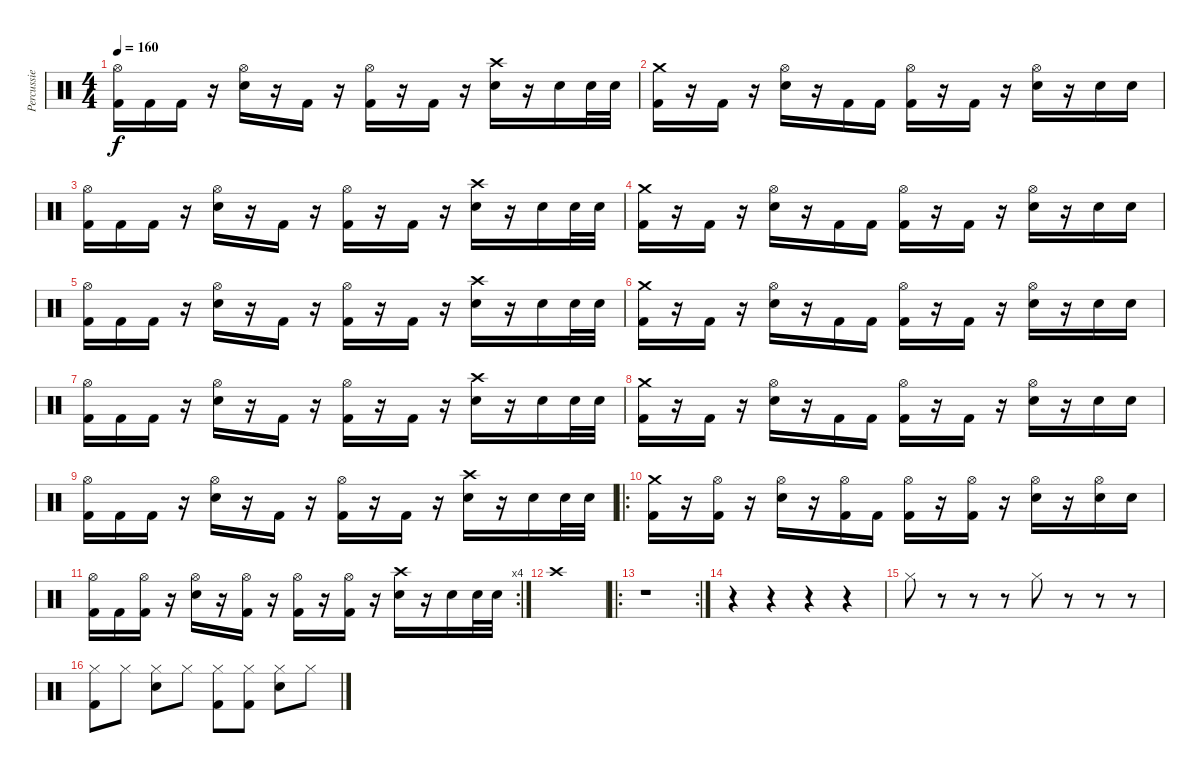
\track ("Percussie" "Percussie") {instrument percussion}
\staff {score}
\articulation defaults
\ts (4 4)
\tempo 160
\clef neutral
\ks c
("Hi-Hat (open)" "Kick (hit) 2").16{dy f} "Kick (hit) 2".16 "Kick (hit) 2".16 r.16 ("Hi-Hat (open)" "Electric Snare (hit)").16 r.16 "Kick (hit) 2".16 r.16 ("Hi-Hat (open)" "Kick (hit) 2").16 r.16 "Kick (hit) 2".16 r.16 ("Crash high (hit)" "Electric Snare (hit)").16 r.16 "Electric Snare (hit)".16 "Electric Snare (hit)".32 "Electric Snare (hit)".32 |
("Crash medium (hit)" "Kick (hit) 2").16 r.16 "Kick (hit) 2".16 r.16 ("Hi-Hat (open)" "Electric Snare (hit)").16 r.16 "Kick (hit) 2".16 "Kick (hit) 2".16 ("Hi-Hat (open)" "Kick (hit) 2").16 r.16 "Kick (hit) 2".16 r.16 ("Hi-Hat (open)" "Electric Snare (hit)").16 r.16 "Electric Snare (hit)".16 "Electric Snare (hit)".16 |
("Hi-Hat (open)" "Kick (hit) 2").16 "Kick (hit) 2".16 "Kick (hit) 2".16 r.16 ("Hi-Hat (open)" "Electric Snare (hit)").16 r.16 "Kick (hit) 2".16 r.16 ("Hi-Hat (open)" "Kick (hit) 2").16 r.16 "Kick (hit) 2".16 r.16 ("Crash high (hit)" "Electric Snare (hit)").16 r.16 "Electric Snare (hit)".16 "Electric Snare (hit)".32 "Electric Snare (hit)".32 |
("Crash medium (hit)" "Kick (hit) 2").16 r.16 "Kick (hit) 2".16 r.16 ("Hi-Hat (open)" "Electric Snare (hit)").16 r.16 "Kick (hit) 2".16 "Kick (hit) 2".16 ("Hi-Hat (open)" "Kick (hit) 2").16 r.16 "Kick (hit) 2".16 r.16 ("Hi-Hat (open)" "Electric Snare (hit)").16 r.16 "Electric Snare (hit)".16 "Electric Snare (hit)".16 |
("Hi-Hat (open)" "Kick (hit) 2").16 "Kick (hit) 2".16 "Kick (hit) 2".16 r.16 ("Hi-Hat (open)" "Electric Snare (hit)").16 r.16 "Kick (hit) 2".16 r.16 ("Hi-Hat (open)" "Kick (hit) 2").16 r.16 "Kick (hit) 2".16 r.16 ("Crash high (hit)" "Electric Snare (hit)").16 r.16 "Electric Snare (hit)".16 "Electric Snare (hit)".32 "Electric Snare (hit)".32 |
("Crash medium (hit)" "Kick (hit) 2").16 r.16 "Kick (hit) 2".16 r.16 ("Hi-Hat (open)" "Electric Snare (hit)").16 r.16 "Kick (hit) 2".16 "Kick (hit) 2".16 ("Hi-Hat (open)" "Kick (hit) 2").16 r.16 "Kick (hit) 2".16 r.16 ("Hi-Hat (open)" "Electric Snare (hit)").16 r.16 "Electric Snare (hit)".16 "Electric Snare (hit)".16 |
("Hi-Hat (open)" "Kick (hit) 2").16 "Kick (hit) 2".16 "Kick (hit) 2".16 r.16 ("Hi-Hat (open)" "Electric Snare (hit)").16 r.16 "Kick (hit) 2".16 r.16 ("Hi-Hat (open)" "Kick (hit) 2").16 r.16 "Kick (hit) 2".16 r.16 ("Crash high (hit)" "Electric Snare (hit)").16 r.16 "Electric Snare (hit)".16 "Electric Snare (hit)".32 "Electric Snare (hit)".32 |
("Crash medium (hit)" "Kick (hit) 2").16 r.16 "Kick (hit) 2".16 r.16 ("Hi-Hat (open)" "Electric Snare (hit)").16 r.16 "Kick (hit) 2".16 "Kick (hit) 2".16 ("Hi-Hat (open)" "Kick (hit) 2").16 r.16 "Kick (hit) 2".16 r.16 ("Hi-Hat (open)" "Electric Snare (hit)").16 r.16 "Electric Snare (hit)".16 "Electric Snare (hit)".16 |
("Hi-Hat (open)" "Kick (hit) 2").16 "Kick (hit) 2".16 "Kick (hit) 2".16 r.16 ("Hi-Hat (open)" "Electric Snare (hit)").16 r.16 "Kick (hit) 2".16 r.16 ("Hi-Hat (open)" "Kick (hit) 2").16 r.16 "Kick (hit) 2".16 r.16 ("Crash high (hit)" "Electric Snare (hit)").16 r.16 "Electric Snare (hit)".16 "Electric Snare (hit)".32 "Electric Snare (hit)".32 |
\ro
("Crash medium (hit)" "Kick (hit) 2").16 r.16 ("Hi-Hat (open)" "Kick (hit) 2").16 r.16 ("Hi-Hat (open)" "Electric Snare (hit)").16 r.16 ("Hi-Hat (open)" "Kick (hit) 2").16 "Kick (hit) 2".16 ("Hi-Hat (open)" "Kick (hit) 2").16 r.16 ("Hi-Hat (open)" "Kick (hit) 2").16 r.16 ("Hi-Hat (open)" "Electric Snare (hit)").16 r.16 ("Hi-Hat (open)" "Electric Snare (hit)").16 "Electric Snare (hit)".16 |
\rc 4
("Hi-Hat (open)" "Kick (hit) 2").16 "Kick (hit) 2".16 ("Hi-Hat (open)" "Kick (hit) 2").16 r.16 ("Hi-Hat (open)" "Electric Snare (hit)").16 r.16 ("Hi-Hat (open)" "Kick (hit) 2").16 r.16 ("Hi-Hat (open)" "Kick (hit) 2").16 r.16 ("Hi-Hat (open)" "Kick (hit) 2").16 r.16 ("Crash high (hit)" "Electric Snare (hit)").16 r.16 "Electric Snare (hit)".16 "Electric Snare (hit)".32 "Electric Snare (hit)".32 |
"Crash high (hit)".1 |
\ro
\rc 2
r.1 |
r.4 r.4 r.4 r.4 |
"Hi-Hat (closed)".8 r.8 r.8 r.8 "Hi-Hat (closed)".8 r.8 r.8 r.8 |
("Hi-Hat (closed)" "Kick (hit) 2").8 "Hi-Hat (closed)".8 ("Hi-Hat (closed)" "Electric Snare (hit)").8 "Hi-Hat (closed)".8 ("Hi-Hat (closed)" "Kick (hit) 2").8 ("Hi-Hat (closed)" "Kick (hit) 2").8 ("Hi-Hat (closed)" "Electric Snare (hit)").8 "Hi-Hat (closed)".8
